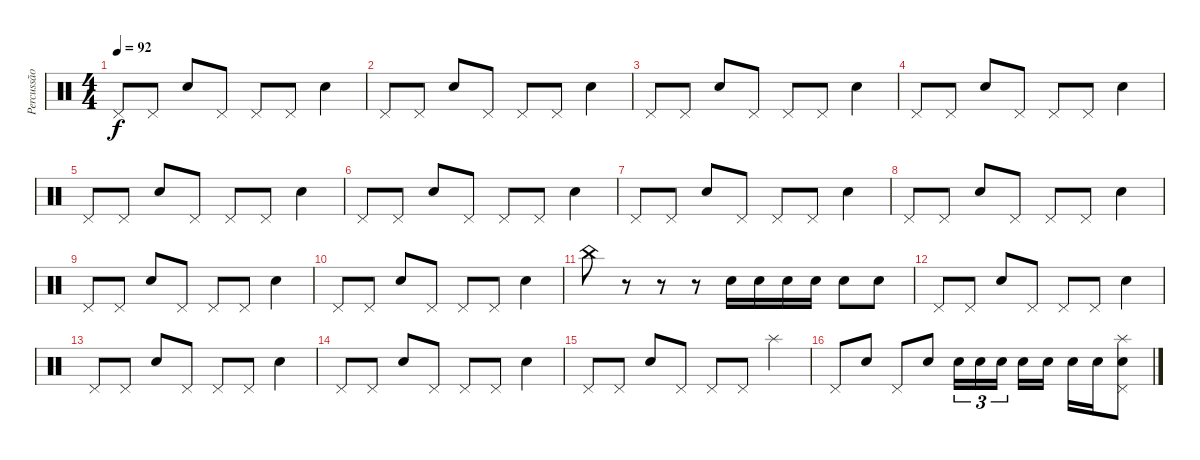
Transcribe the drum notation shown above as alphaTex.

\track ("Percussão" "Percussão") {instrument percussion}
\staff {score}
\articulation defaults
\ts (4 4)
\tempo 92
\clef neutral
\ks c "Pedal Hi-Hat (hit)".8{dy f} "Pedal Hi-Hat (hit)".8 "Electric Snare (hit)".8 "Pedal Hi-Hat (hit)".8 "Pedal Hi-Hat (hit)".8 "Pedal Hi-Hat (hit)".8 "Electric Snare (hit)".4
|
"Pedal Hi-Hat (hit)".8 "Pedal Hi-Hat (hit)".8 "Electric Snare (hit)".8 "Pedal Hi-Hat (hit)".8 "Pedal Hi-Hat (hit)".8 "Pedal Hi-Hat (hit)".8 "Electric Snare (hit)".4 |
"Pedal Hi-Hat (hit)".8 "Pedal Hi-Hat (hit)".8 "Electric Snare (hit)".8 "Pedal Hi-Hat (hit)".8 "Pedal Hi-Hat (hit)".8 "Pedal Hi-Hat (hit)".8 "Electric Snare (hit)".4 |
"Pedal Hi-Hat (hit)".8 "Pedal Hi-Hat (hit)".8 "Electric Snare (hit)".8 "Pedal Hi-Hat (hit)".8 "Pedal Hi-Hat (hit)".8 "Pedal Hi-Hat (hit)".8 "Electric Snare (hit)".4 |
"Pedal Hi-Hat (hit)".8 "Pedal Hi-Hat (hit)".8 "Electric Snare (hit)".8 "Pedal Hi-Hat (hit)".8 "Pedal Hi-Hat (hit)".8 "Pedal Hi-Hat (hit)".8 "Electric Snare (hit)".4 |
"Pedal Hi-Hat (hit)".8 "Pedal Hi-Hat (hit)".8 "Electric Snare (hit)".8 "Pedal Hi-Hat (hit)".8 "Pedal Hi-Hat (hit)".8 "Pedal Hi-Hat (hit)".8 "Electric Snare (hit)".4 |
"Pedal Hi-Hat (hit)".8 "Pedal Hi-Hat (hit)".8 "Electric Snare (hit)".8 "Pedal Hi-Hat (hit)".8 "Pedal Hi-Hat (hit)".8 "Pedal Hi-Hat (hit)".8 "Electric Snare (hit)".4 |
"Pedal Hi-Hat (hit)".8 "Pedal Hi-Hat (hit)".8 "Electric Snare (hit)".8 "Pedal Hi-Hat (hit)".8 "Pedal Hi-Hat (hit)".8 "Pedal Hi-Hat (hit)".8 "Electric Snare (hit)".4 |
"Pedal Hi-Hat (hit)".8 "Pedal Hi-Hat (hit)".8 "Electric Snare (hit)".8 "Pedal Hi-Hat (hit)".8 "Pedal Hi-Hat (hit)".8 "Pedal Hi-Hat (hit)".8 "Electric Snare (hit)".4 |
"Pedal Hi-Hat (hit)".8 "Pedal Hi-Hat (hit)".8 "Electric Snare (hit)".8 "Pedal Hi-Hat (hit)".8 "Pedal Hi-Hat (hit)".8 "Pedal Hi-Hat (hit)".8 "Electric Snare (hit)".4 |
"China (hit)".8 r.8 r.8 r.8 "Electric Snare (hit)".16 "Electric Snare (hit)".16 "Electric Snare (hit)".16 "Electric Snare (hit)".16 "Electric Snare (hit)".8 "Electric Snare (hit)".8 |
"Pedal Hi-Hat (hit)".8 "Pedal Hi-Hat (hit)".8 "Electric Snare (hit)".8 "Pedal Hi-Hat (hit)".8 "Pedal Hi-Hat (hit)".8 "Pedal Hi-Hat (hit)".8 "Electric Snare (hit)".4 |
"Pedal Hi-Hat (hit)".8 "Pedal Hi-Hat (hit)".8 "Electric Snare (hit)".8 "Pedal Hi-Hat (hit)".8 "Pedal Hi-Hat (hit)".8 "Pedal Hi-Hat (hit)".8 "Electric Snare (hit)".4 |
"Pedal Hi-Hat (hit)".8 "Pedal Hi-Hat (hit)".8 "Electric Snare (hit)".8 "Pedal Hi-Hat (hit)".8 "Pedal Hi-Hat (hit)".8 "Pedal Hi-Hat (hit)".8 "Electric Snare (hit)".4 |
"Pedal Hi-Hat (hit)".8 "Pedal Hi-Hat (hit)".8 "Electric Snare (hit)".8 "Pedal Hi-Hat (hit)".8 "Pedal Hi-Hat (hit)".8 "Pedal Hi-Hat (hit)".8 "Splash (hit)".4 |
"Pedal Hi-Hat (hit)".8 "Electric Snare (hit)".8 "Pedal Hi-Hat (hit)".8 "Electric Snare (hit)".8 "Electric Snare (hit)".16{tu (3 2)} "Electric Snare (hit)".16{tu (3 2)} "Electric Snare (hit)".16{tu (3 2)} "Electric Snare (hit)".16 "Electric Snare (hit)".16 "Electric Snare (hit)".16 "Electric Snare (hit)".16 ("Splash (hit)" "Pedal Hi-Hat (hit)" "Electric Snare (hit)").8
